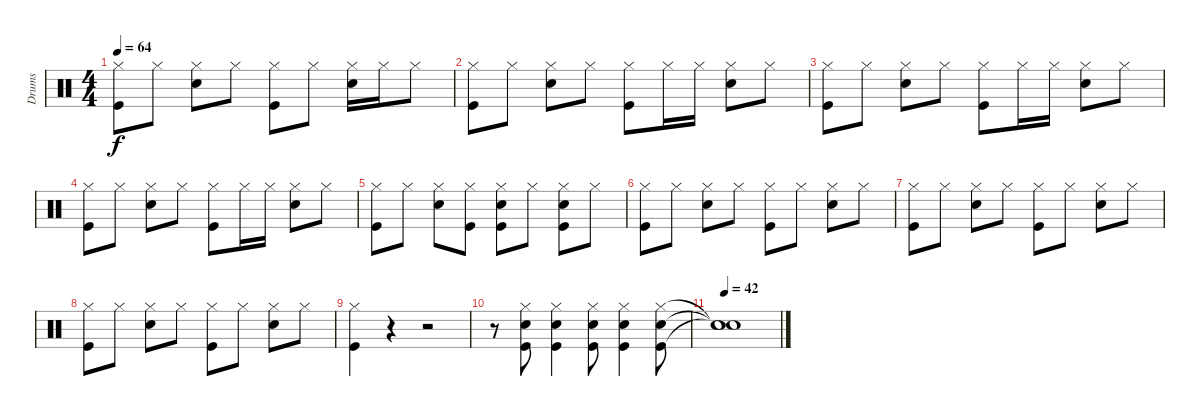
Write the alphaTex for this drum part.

\track ("Drums" "Drums") {instrument percussion}
\staff {score}
\articulation defaults
\ts (4 4)
\tempo 64
\clef neutral
\ks c
("Hi-Hat (closed)" "Kick (hit)").8{dy f} "Hi-Hat (closed)".8 ("Hi-Hat (closed)" "Snare (hit) 2").8 "Hi-Hat (closed)".8 ("Hi-Hat (closed)" "Kick (hit)").8 "Hi-Hat (closed)".8 ("Hi-Hat (closed)" "Snare (hit) 2").16 "Hi-Hat (closed)".16 "Hi-Hat (closed)".8 |
("Hi-Hat (closed)" "Kick (hit)").8 "Hi-Hat (closed)".8 ("Hi-Hat (closed)" "Snare (hit) 2").8 "Hi-Hat (closed)".8 ("Hi-Hat (closed)" "Kick (hit)").8 "Hi-Hat (closed)".16 "Hi-Hat (closed)".16 ("Hi-Hat (closed)" "Snare (hit) 2").8 "Hi-Hat (closed)".8 |
("Hi-Hat (closed)" "Kick (hit)").8 "Hi-Hat (closed)".8 ("Hi-Hat (closed)" "Snare (hit) 2").8 "Hi-Hat (closed)".8 ("Hi-Hat (closed)" "Kick (hit)").8 "Hi-Hat (closed)".16 "Hi-Hat (closed)".16 ("Hi-Hat (closed)" "Snare (hit) 2").8 "Hi-Hat (closed)".8 |
("Hi-Hat (closed)" "Kick (hit)").8 "Hi-Hat (closed)".8 ("Hi-Hat (closed)" "Snare (hit) 2").8 "Hi-Hat (closed)".8 ("Hi-Hat (closed)" "Kick (hit)").8 "Hi-Hat (closed)".16 "Hi-Hat (closed)".16 ("Hi-Hat (closed)" "Snare (hit) 2").8 "Hi-Hat (closed)".8 |
("Hi-Hat (closed)" "Kick (hit)").8 "Hi-Hat (closed)".8 ("Hi-Hat (closed)" "Snare (hit) 2").8 ("Hi-Hat (closed)" "Kick (hit)").8 ("Hi-Hat (closed)" "Snare (hit) 2" "Kick (hit)").8 "Hi-Hat (closed)".8 ("Hi-Hat (closed)" "Snare (hit) 2" "Kick (hit)").8 "Hi-Hat (closed)".8 |
("Hi-Hat (closed)" "Kick (hit)").8 "Hi-Hat (closed)".8 ("Hi-Hat (closed)" "Snare (hit) 2").8 "Hi-Hat (closed)".8 ("Hi-Hat (closed)" "Kick (hit)").8 "Hi-Hat (closed)".8 ("Hi-Hat (closed)" "Snare (hit) 2").8 "Hi-Hat (closed)".8 |
("Hi-Hat (closed)" "Kick (hit)").8 "Hi-Hat (closed)".8 ("Hi-Hat (closed)" "Snare (hit) 2").8 "Hi-Hat (closed)".8 ("Hi-Hat (closed)" "Kick (hit)").8 "Hi-Hat (closed)".8 ("Hi-Hat (closed)" "Snare (hit) 2").8 "Hi-Hat (closed)".8 |
("Hi-Hat (closed)" "Kick (hit)").8 "Hi-Hat (closed)".8 ("Hi-Hat (closed)" "Snare (hit) 2").8 "Hi-Hat (closed)".8 ("Hi-Hat (closed)" "Kick (hit)").8 "Hi-Hat (closed)".8 ("Hi-Hat (closed)" "Snare (hit) 2").8 "Hi-Hat (closed)".8 |
("Hi-Hat (closed)" "Kick (hit)").4 r.4 r.2 |
r.8 ("Hi-Hat (closed)" "Snare (hit) 2" "Kick (hit)").8 ("Hi-Hat (closed)" "Snare (hit) 2" "Kick (hit)").4 ("Hi-Hat (closed)" "Snare (hit) 2" "Kick (hit)").8 ("Hi-Hat (closed)" "Snare (hit) 2" "Kick (hit)").4 ("Hi-Hat (closed)" "Snare (hit) 2" "Kick (hit)").8 |
\tempo 42
("Snare (hit)"{t} "Snare (hit)"{t} "Snare (hit)"{t}).1
